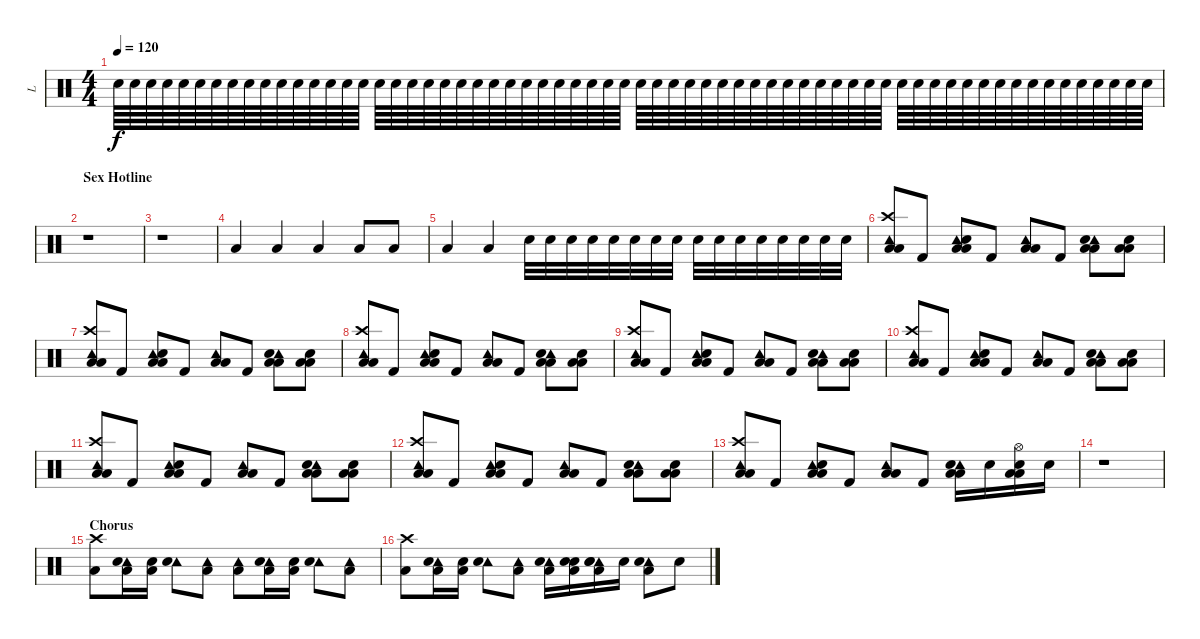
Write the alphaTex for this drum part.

\track ("L" "L") {instrument percussion}
\staff {score}
\articulation defaults
\ts (4 4)
\tempo 120
\clef neutral
\ks c "Electric Snare (hit)".64{dy f} "Electric Snare (hit)".64 "Electric Snare (hit)".64 "Electric Snare (hit)".64 "Electric Snare (hit)".64 "Electric Snare (hit)".64 "Electric Snare (hit)".64 "Electric Snare (hit)".64 "Electric Snare (hit)".64 "Electric Snare (hit)".64 "Electric Snare (hit)".64 "Electric Snare (hit)".64 "Electric Snare (hit)".64 "Electric Snare (hit)".64 "Electric Snare (hit)".64 "Electric Snare (hit)".64 "Electric Snare (hit)".64 "Electric Snare (hit)".64 "Electric Snare (hit)".64 "Electric Snare (hit)".64 "Electric Snare (hit)".64 "Electric Snare (hit)".64 "Electric Snare (hit)".64 "Electric Snare (hit)".64 "Electric Snare (hit)".64 "Electric Snare (hit)".64 "Electric Snare (hit)".64 "Electric Snare (hit)".64 "Electric Snare (hit)".64 "Electric Snare (hit)".64 "Electric Snare (hit)".64 "Electric Snare (hit)".64 "Electric Snare (hit)".64 "Electric Snare (hit)".64 "Electric Snare (hit)".64 "Electric Snare (hit)".64 "Electric Snare (hit)".64 "Electric Snare (hit)".64 "Electric Snare (hit)".64 "Electric Snare (hit)".64 "Electric Snare (hit)".64 "Electric Snare (hit)".64 "Electric Snare (hit)".64 "Electric Snare (hit)".64 "Electric Snare (hit)".64 "Electric Snare (hit)".64 "Electric Snare (hit)".64 "Electric Snare (hit)".64 "Electric Snare (hit)".64 "Electric Snare (hit)".64 "Electric Snare (hit)".64 "Electric Snare (hit)".64 "Electric Snare (hit)".64 "Electric Snare (hit)".64 "Electric Snare (hit)".64 "Electric Snare (hit)".64 "Electric Snare (hit)".64 "Electric Snare (hit)".64 "Electric Snare (hit)".64 "Electric Snare (hit)".64 "Electric Snare (hit)".64 "Electric Snare (hit)".64 "Electric Snare (hit)".64 "Electric Snare (hit)".64
|
\section ("" "Sex Hotline")
r.1 |
r.1 |
"Low Floor Tom (hit)".4 "Low Floor Tom (hit)".4 "Low Floor Tom (hit)".4 "Low Floor Tom (hit)".8 "Low Floor Tom (hit)".8 |
"Low Floor Tom (hit)".4 "Low Floor Tom (hit)".4 "Electric Snare (hit)".32 "Electric Snare (hit)".32 "Electric Snare (hit)".32 "Electric Snare (hit)".32 "Electric Snare (hit)".32 "Electric Snare (hit)".32 "Electric Snare (hit)".32 "Electric Snare (hit)".32 "Electric Snare (hit)".32 "Electric Snare (hit)".32 "Electric Snare (hit)".32 "Electric Snare (hit)".32 "Electric Snare (hit)".32 "Electric Snare (hit)".32 "Electric Snare (hit)".32 "Electric Snare (hit)".32 |
("Crash high (hit)" "Tambourine (hit)" "Low Floor Tom (hit)" "Low Floor Tom (hit)").8 "Kick (hit) 2".8 ("Tambourine (hit)" "Electric Snare (hit)" "Low Floor Tom (hit)" "Low Floor Tom (hit)").8 "Kick (hit) 2".8 ("Tambourine (hit)" "Low Floor Tom (hit)" "Low Floor Tom (hit)").8 "Kick (hit) 2".8 ("Tambourine (hit)" "Electric Snare (hit)" "Low Floor Tom (hit)" "Low Floor Tom (hit)").8 ("Electric Snare (hit)" "Low Floor Tom (hit)" "Low Floor Tom (hit)").8 |
("Crash high (hit)" "Tambourine (hit)" "Low Floor Tom (hit)" "Low Floor Tom (hit)").8 "Kick (hit) 2".8 ("Tambourine (hit)" "Electric Snare (hit)" "Low Floor Tom (hit)" "Low Floor Tom (hit)").8 "Kick (hit) 2".8 ("Tambourine (hit)" "Low Floor Tom (hit)" "Low Floor Tom (hit)").8 "Kick (hit) 2".8 ("Tambourine (hit)" "Electric Snare (hit)" "Low Floor Tom (hit)" "Low Floor Tom (hit)").8 ("Electric Snare (hit)" "Low Floor Tom (hit)" "Low Floor Tom (hit)").8 |
("Crash high (hit)" "Tambourine (hit)" "Low Floor Tom (hit)" "Low Floor Tom (hit)").8 "Kick (hit) 2".8 ("Tambourine (hit)" "Electric Snare (hit)" "Low Floor Tom (hit)" "Low Floor Tom (hit)").8 "Kick (hit) 2".8 ("Tambourine (hit)" "Low Floor Tom (hit)" "Low Floor Tom (hit)").8 "Kick (hit) 2".8 ("Tambourine (hit)" "Electric Snare (hit)" "Low Floor Tom (hit)" "Low Floor Tom (hit)").8 ("Electric Snare (hit)" "Low Floor Tom (hit)" "Low Floor Tom (hit)").8 |
("Crash high (hit)" "Tambourine (hit)" "Low Floor Tom (hit)" "Low Floor Tom (hit)").8 "Kick (hit) 2".8 ("Tambourine (hit)" "Electric Snare (hit)" "Low Floor Tom (hit)" "Low Floor Tom (hit)").8 "Kick (hit) 2".8 ("Tambourine (hit)" "Low Floor Tom (hit)" "Low Floor Tom (hit)").8 "Kick (hit) 2".8 ("Tambourine (hit)" "Electric Snare (hit)" "Low Floor Tom (hit)" "Low Floor Tom (hit)").8 ("Electric Snare (hit)" "Low Floor Tom (hit)" "Low Floor Tom (hit)").8 |
("Crash high (hit)" "Tambourine (hit)" "Low Floor Tom (hit)" "Low Floor Tom (hit)").8 "Kick (hit) 2".8 ("Tambourine (hit)" "Electric Snare (hit)" "Low Floor Tom (hit)" "Low Floor Tom (hit)").8 "Kick (hit) 2".8 ("Tambourine (hit)" "Low Floor Tom (hit)" "Low Floor Tom (hit)").8 "Kick (hit) 2".8 ("Tambourine (hit)" "Electric Snare (hit)" "Low Floor Tom (hit)" "Low Floor Tom (hit)").8 ("Electric Snare (hit)" "Low Floor Tom (hit)" "Low Floor Tom (hit)").8 |
("Crash high (hit)" "Tambourine (hit)" "Low Floor Tom (hit)" "Low Floor Tom (hit)").8 "Kick (hit) 2".8 ("Tambourine (hit)" "Electric Snare (hit)" "Low Floor Tom (hit)" "Low Floor Tom (hit)").8 "Kick (hit) 2".8 ("Tambourine (hit)" "Low Floor Tom (hit)" "Low Floor Tom (hit)").8 "Kick (hit) 2".8 ("Tambourine (hit)" "Electric Snare (hit)" "Low Floor Tom (hit)" "Low Floor Tom (hit)").8 ("Electric Snare (hit)" "Low Floor Tom (hit)" "Low Floor Tom (hit)").8 |
("Crash high (hit)" "Tambourine (hit)" "Low Floor Tom (hit)" "Low Floor Tom (hit)").8 "Kick (hit) 2".8 ("Tambourine (hit)" "Electric Snare (hit)" "Low Floor Tom (hit)" "Low Floor Tom (hit)").8 "Kick (hit) 2".8 ("Tambourine (hit)" "Low Floor Tom (hit)" "Low Floor Tom (hit)").8 "Kick (hit) 2".8 ("Tambourine (hit)" "Electric Snare (hit)" "Low Floor Tom (hit)" "Low Floor Tom (hit)").8 ("Electric Snare (hit)" "Low Floor Tom (hit)" "Low Floor Tom (hit)").8 |
("Crash high (hit)" "Tambourine (hit)" "Low Floor Tom (hit)" "Low Floor Tom (hit)").8 "Kick (hit) 2".8 ("Tambourine (hit)" "Electric Snare (hit)" "Low Floor Tom (hit)" "Low Floor Tom (hit)").8 "Kick (hit) 2".8 ("Tambourine (hit)" "Low Floor Tom (hit)" "Low Floor Tom (hit)").8 "Kick (hit) 2".8 ("Tambourine (hit)" "Electric Snare (hit)" "Low Floor Tom (hit)" "Low Floor Tom (hit)").16 "Electric Snare (hit)".16 ("Hi-Hat (open)" "Electric Snare (hit)" "Low Floor Tom (hit)" "Low Floor Tom (hit)").16 "Electric Snare (hit)".16 |
r.1 |
\section ("" "Chorus")
("Crash high (hit)" "Low Floor Tom (hit)").8 ("Tambourine (hit)" "Snare (hit) 2" "Low Floor Tom (hit)").16 ("Snare (hit) 2" "Low Floor Tom (hit)").16 ("Tambourine (hit)" "Electric Snare (hit)").8 ("Tambourine (hit)" "Low Floor Tom (hit)").8 ("Tambourine (hit)" "Low Floor Tom (hit)").8 ("Tambourine (hit)" "Snare (hit) 2" "Low Floor Tom (hit)").16 ("Snare (hit) 2" "Low Floor Tom (hit)").16 ("Tambourine (hit)" "Electric Snare (hit)").8 ("Tambourine (hit)" "Low Floor Tom (hit)").8 |
("Crash high (hit)" "Low Floor Tom (hit)").8 ("Tambourine (hit)" "Snare (hit) 2" "Low Floor Tom (hit)").16 ("Snare (hit) 2" "Low Floor Tom (hit)").16 ("Tambourine (hit)" "Electric Snare (hit)").8 ("Tambourine (hit)" "Low Floor Tom (hit)").8 ("Tambourine (hit)" "Electric Snare (hit)" "Low Floor Tom (hit)").16 ("Electric Snare (hit)" "Snare (hit) 2" "Low Floor Tom (hit)").16 ("Tambourine (hit)" "Electric Snare (hit)" "Snare (hit) 2" "Low Floor Tom (hit)").16 "Electric Snare (hit)".16 ("Tambourine (hit)" "Electric Snare (hit)" "Low Floor Tom (hit)").8 "Electric Snare (hit)".8
